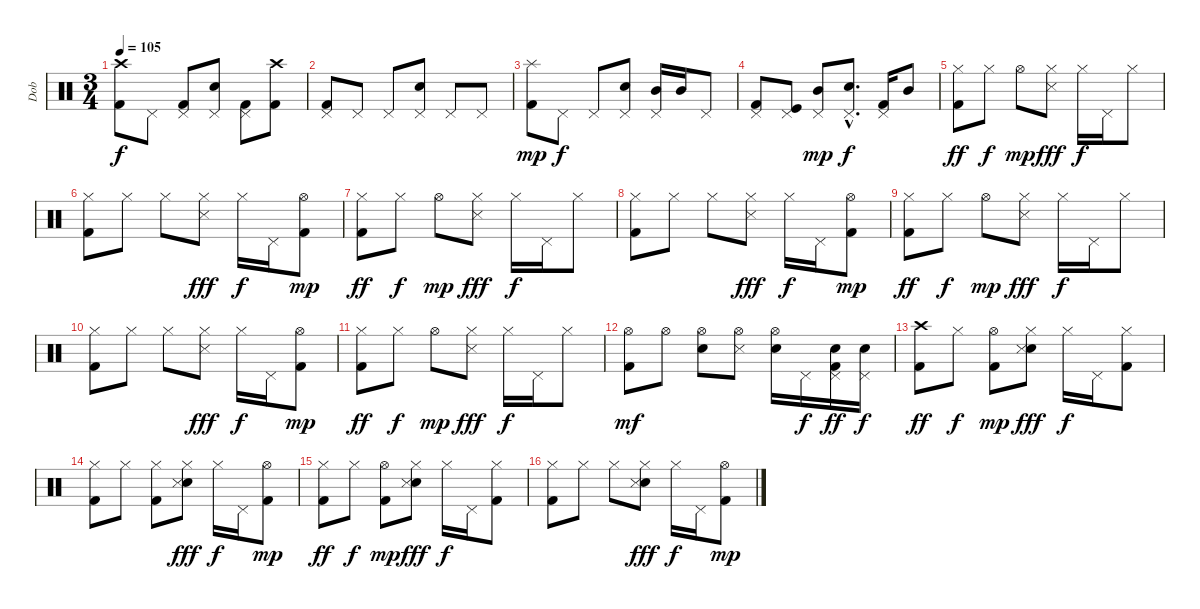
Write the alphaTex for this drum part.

\track ("Dob" "Dob") {instrument percussion}
\staff {score}
\articulation defaults
\ts (3 4)
\tempo 105
\clef neutral
\ks c
("Kick (hit) 2" "Crash high (hit)").8{dy f} "Pedal Hi-Hat (hit)".8 ("Kick (hit) 2" "Pedal Hi-Hat (hit)").8 ("Electric Snare (hit)" "Pedal Hi-Hat (hit)").8 ("Kick (hit) 2" "Pedal Hi-Hat (hit)").8 ("Kick (hit) 2" "Crash high (hit)").8 |
("Kick (hit) 2" "Pedal Hi-Hat (hit)").8 "Pedal Hi-Hat (hit)".8 "Pedal Hi-Hat (hit)".8 ("Electric Snare (hit)" "Pedal Hi-Hat (hit)").8 "Pedal Hi-Hat (hit)".8 "Pedal Hi-Hat (hit)".8 |
("Kick (hit) 2" "Splash (hit)").8{dy mp} "Pedal Hi-Hat (hit)".8{dy f} "Pedal Hi-Hat (hit)".8 ("Electric Snare (hit)" "Pedal Hi-Hat (hit)").8 ("Mid Tom (hit)" "Pedal Hi-Hat (hit)").16 "Mid Tom (hit)".16 "Pedal Hi-Hat (hit)".8 |
("Kick (hit) 2" "Pedal Hi-Hat (hit)").8 ("Kick (hit)" "Pedal Hi-Hat (hit)").8 ("Mid Tom (hit)" "Pedal Hi-Hat (hit)").8{dy mp} ("Electric Snare (hit)"{hac} "Pedal Hi-Hat (hit)"{hac}).8{d dy f} ("Kick (hit) 2" "Pedal Hi-Hat (hit)").16 "Mid Tom (hit)".8 |
("Kick (hit) 2" "Hi-Hat (closed)").8{dy ff} "Hi-Hat (closed)".8{dy f} "Hi-Hat (open)".8{dy mp} ("Snare (side stick) 3" "Hi-Hat (closed)").8{dy fff} "Hi-Hat (closed)".16{dy f} "Pedal Hi-Hat (hit)".16 "Hi-Hat (closed)".8 |
("Kick (hit) 2" "Hi-Hat (closed)").8 "Hi-Hat (closed)".8 "Hi-Hat (closed)".8 ("Snare (side stick) 3" "Hi-Hat (closed)").8{dy fff} "Hi-Hat (closed)".16{dy f} "Pedal Hi-Hat (hit)".16 ("Kick (hit) 2" "Hi-Hat (open)").8{dy mp} |
("Kick (hit) 2" "Hi-Hat (closed)").8{dy ff} "Hi-Hat (closed)".8{dy f} "Hi-Hat (open)".8{dy mp} ("Snare (side stick) 3" "Hi-Hat (closed)").8{dy fff} "Hi-Hat (closed)".16{dy f} "Pedal Hi-Hat (hit)".16 "Hi-Hat (closed)".8 |
("Kick (hit) 2" "Hi-Hat (closed)").8 "Hi-Hat (closed)".8 "Hi-Hat (closed)".8 ("Snare (side stick) 3" "Hi-Hat (closed)").8{dy fff} "Hi-Hat (closed)".16{dy f} "Pedal Hi-Hat (hit)".16 ("Kick (hit) 2" "Hi-Hat (open)").8{dy mp} |
("Kick (hit) 2" "Hi-Hat (closed)").8{dy ff} "Hi-Hat (closed)".8{dy f} "Hi-Hat (open)".8{dy mp} ("Snare (side stick) 3" "Hi-Hat (closed)").8{dy fff} "Hi-Hat (closed)".16{dy f} "Pedal Hi-Hat (hit)".16 "Hi-Hat (closed)".8 |
("Kick (hit) 2" "Hi-Hat (closed)").8 "Hi-Hat (closed)".8 "Hi-Hat (closed)".8 ("Snare (side stick) 3" "Hi-Hat (closed)").8{dy fff} "Hi-Hat (closed)".16{dy f} "Pedal Hi-Hat (hit)".16 ("Kick (hit) 2" "Hi-Hat (open)").8{dy mp} |
("Kick (hit) 2" "Hi-Hat (closed)").8{dy ff} "Hi-Hat (closed)".8{dy f} "Hi-Hat (open)".8{dy mp} ("Snare (side stick) 3" "Hi-Hat (closed)").8{dy fff} "Hi-Hat (closed)".16{dy f} "Pedal Hi-Hat (hit)".16 "Hi-Hat (closed)".8 |
("Kick (hit) 2" "Hi-Hat (open)").8{dy mf} "Hi-Hat (open)".8 ("Electric Snare (hit)" "Hi-Hat (open)").8 ("Snare (side stick) 3" "Hi-Hat (open)").8 ("Electric Snare (hit)" "Hi-Hat (open)").16 "Pedal Hi-Hat (hit)".16{dy f} ("Electric Snare (hit)" "Kick (hit) 2" "Pedal Hi-Hat (hit)").16{dy ff} ("Electric Snare (hit)" "Pedal Hi-Hat (hit)").16{dy f} |
("Kick (hit) 2" "Crash high (hit)").8{dy ff} "Hi-Hat (closed)".8{dy f} ("Kick (hit) 2" "Hi-Hat (open)").8{dy mp} ("Electric Snare (hit)" "Snare (side stick) 3" "Hi-Hat (closed)").8{dy fff} "Hi-Hat (closed)".16{dy f} "Pedal Hi-Hat (hit)".16 ("Kick (hit) 2" "Hi-Hat (closed)").8 |
("Kick (hit) 2" "Hi-Hat (closed)").8 "Hi-Hat (closed)".8 ("Kick (hit) 2" "Hi-Hat (closed)").8 ("Electric Snare (hit)" "Snare (side stick) 3" "Hi-Hat (closed)").8{dy fff} "Hi-Hat (closed)".16{dy f} "Pedal Hi-Hat (hit)".16 ("Kick (hit) 2" "Hi-Hat (open)").8{dy mp} |
("Kick (hit) 2" "Hi-Hat (closed)").8{dy ff} "Hi-Hat (closed)".8{dy f} ("Kick (hit) 2" "Hi-Hat (open)").8{dy mp} ("Electric Snare (hit)" "Snare (side stick) 3" "Hi-Hat (closed)").8{dy fff} "Hi-Hat (closed)".16{dy f} "Pedal Hi-Hat (hit)".16 ("Kick (hit) 2" "Hi-Hat (closed)").8 |
("Kick (hit) 2" "Hi-Hat (closed)").8 "Hi-Hat (closed)".8 "Hi-Hat (closed)".8 ("Electric Snare (hit)" "Snare (side stick) 3" "Hi-Hat (closed)").8{dy fff} "Hi-Hat (closed)".16{dy f} "Pedal Hi-Hat (hit)".16 ("Kick (hit) 2" "Hi-Hat (open)").8{dy mp}
